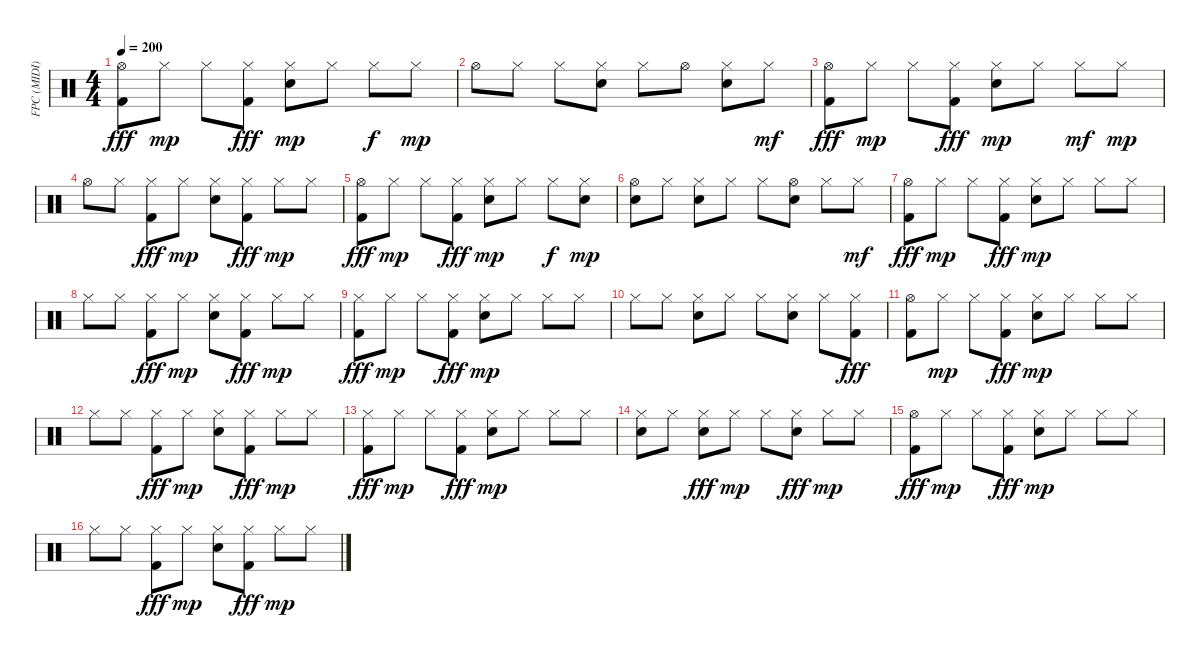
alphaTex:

\track ("FPC (MIDI)" "FPC (MIDI)") {instrument percussion}
\staff {score}
\articulation defaults
\ts (4 4)
\tempo 200
\clef neutral
\ks c
("Hi-Hat (open)" "Kick (hit) 2").8{dy fff} "Hi-Hat (closed)".8{dy mp} "Hi-Hat (closed)".8 ("Hi-Hat (closed)" "Kick (hit) 2").8{dy fff} ("Hi-Hat (closed)" "Electric Snare (hit)").8{dy mp} "Hi-Hat (closed)".8 "Hi-Hat (closed)".8{dy f} "Hi-Hat (closed)".8{dy mp} |
"Hi-Hat (open)".8 "Hi-Hat (closed)".8 "Hi-Hat (closed)".8 ("Hi-Hat (closed)" "Electric Snare (hit)").8 "Hi-Hat (closed)".8 "Hi-Hat (open)".8 ("Hi-Hat (closed)" "Electric Snare (hit)").8 "Hi-Hat (closed)".8{dy mf} |
("Hi-Hat (open)" "Kick (hit) 2").8{dy fff} "Hi-Hat (closed)".8{dy mp} "Hi-Hat (closed)".8 ("Hi-Hat (closed)" "Kick (hit) 2").8{dy fff} ("Hi-Hat (closed)" "Electric Snare (hit)").8{dy mp} "Hi-Hat (closed)".8 "Hi-Hat (closed)".8{dy mf} "Hi-Hat (closed)".8{dy mp} |
"Hi-Hat (open)".8 "Hi-Hat (closed)".8 ("Hi-Hat (closed)" "Kick (hit) 2").8{dy fff} "Hi-Hat (closed)".8{dy mp} ("Hi-Hat (closed)" "Electric Snare (hit)").8 ("Hi-Hat (closed)" "Kick (hit) 2").8{dy fff} "Hi-Hat (closed)".8{dy mp} "Hi-Hat (closed)".8 |
("Hi-Hat (open)" "Kick (hit) 2").8{dy fff} "Hi-Hat (closed)".8{dy mp} "Hi-Hat (closed)".8 ("Hi-Hat (closed)" "Kick (hit) 2").8{dy fff} ("Hi-Hat (closed)" "Electric Snare (hit)").8{dy mp} "Hi-Hat (closed)".8 "Hi-Hat (closed)".8{dy f} ("Hi-Hat (closed)" "Electric Snare (hit)").8{dy mp} |
("Hi-Hat (open)" "Electric Snare (hit)").8 "Hi-Hat (closed)".8 ("Hi-Hat (closed)" "Electric Snare (hit)").8 "Hi-Hat (closed)".8 "Hi-Hat (closed)".8 ("Hi-Hat (open)" "Electric Snare (hit)").8 "Hi-Hat (closed)".8 "Hi-Hat (closed)".8{dy mf} |
("Hi-Hat (open)" "Kick (hit) 2").8{dy fff} "Hi-Hat (closed)".8{dy mp} "Hi-Hat (closed)".8 ("Hi-Hat (closed)" "Kick (hit) 2").8{dy fff} ("Hi-Hat (closed)" "Hand Clap (hit)").8{dy mp} "Hi-Hat (closed)".8 "Hi-Hat (closed)".8 "Hi-Hat (closed)".8 |
"Hi-Hat (closed)".8 "Hi-Hat (closed)".8 ("Hi-Hat (closed)" "Kick (hit) 2").8{dy fff} "Hi-Hat (closed)".8{dy mp} ("Hi-Hat (closed)" "Hand Clap (hit)").8 ("Hi-Hat (closed)" "Kick (hit) 2").8{dy fff} "Hi-Hat (closed)".8{dy mp} "Hi-Hat (closed)".8 |
("Hi-Hat (closed)" "Kick (hit) 2").8{dy fff} "Hi-Hat (closed)".8{dy mp} "Hi-Hat (closed)".8 ("Hi-Hat (closed)" "Kick (hit) 2").8{dy fff} ("Hi-Hat (closed)" "Hand Clap (hit)").8{dy mp} "Hi-Hat (closed)".8 "Hi-Hat (closed)".8 "Hi-Hat (closed)".8 |
"Hi-Hat (closed)".8 "Hi-Hat (closed)".8 ("Hi-Hat (closed)" "Hand Clap (hit)").8 "Hi-Hat (closed)".8 "Hi-Hat (closed)".8 ("Hi-Hat (closed)" "Hand Clap (hit)").8 "Hi-Hat (closed)".8 ("Hi-Hat (closed)" "Kick (hit) 2").8{dy fff} |
("Hi-Hat (open)" "Kick (hit) 2").8 "Hi-Hat (closed)".8{dy mp} "Hi-Hat (closed)".8 ("Hi-Hat (closed)" "Kick (hit) 2").8{dy fff} ("Hi-Hat (closed)" "Hand Clap (hit)").8{dy mp} "Hi-Hat (closed)".8 "Hi-Hat (closed)".8 "Hi-Hat (closed)".8 |
"Hi-Hat (closed)".8 "Hi-Hat (closed)".8 ("Hi-Hat (closed)" "Kick (hit) 2").8{dy fff} "Hi-Hat (closed)".8{dy mp} ("Hi-Hat (closed)" "Hand Clap (hit)").8 ("Hi-Hat (closed)" "Kick (hit) 2").8{dy fff} "Hi-Hat (closed)".8{dy mp} "Hi-Hat (closed)".8 |
("Hi-Hat (closed)" "Kick (hit) 2").8{dy fff} "Hi-Hat (closed)".8{dy mp} "Hi-Hat (closed)".8 ("Hi-Hat (closed)" "Kick (hit) 2").8{dy fff} ("Hi-Hat (closed)" "Hand Clap (hit)").8{dy mp} "Hi-Hat (closed)".8 "Hi-Hat (closed)".8 "Hi-Hat (closed)".8 |
("Hi-Hat (closed)" "Hand Clap (hit)").8 "Hi-Hat (closed)".8 ("Hi-Hat (closed)" "Hand Clap (hit)").8{dy fff} "Hi-Hat (closed)".8{dy mp} "Hi-Hat (closed)".8 ("Hi-Hat (closed)" "Hand Clap (hit)").8{dy fff} "Hi-Hat (closed)".8{dy mp} "Hi-Hat (closed)".8 |
("Hi-Hat (open)" "Kick (hit) 2").8{dy fff} "Hi-Hat (closed)".8{dy mp} "Hi-Hat (closed)".8 ("Hi-Hat (closed)" "Kick (hit) 2").8{dy fff} ("Hi-Hat (closed)" "Hand Clap (hit)").8{dy mp} "Hi-Hat (closed)".8 "Hi-Hat (closed)".8 "Hi-Hat (closed)".8 |
"Hi-Hat (closed)".8 "Hi-Hat (closed)".8 ("Hi-Hat (closed)" "Kick (hit) 2").8{dy fff} "Hi-Hat (closed)".8{dy mp} ("Hi-Hat (closed)" "Hand Clap (hit)").8 ("Hi-Hat (closed)" "Kick (hit) 2").8{dy fff} "Hi-Hat (closed)".8{dy mp} "Hi-Hat (closed)".8
